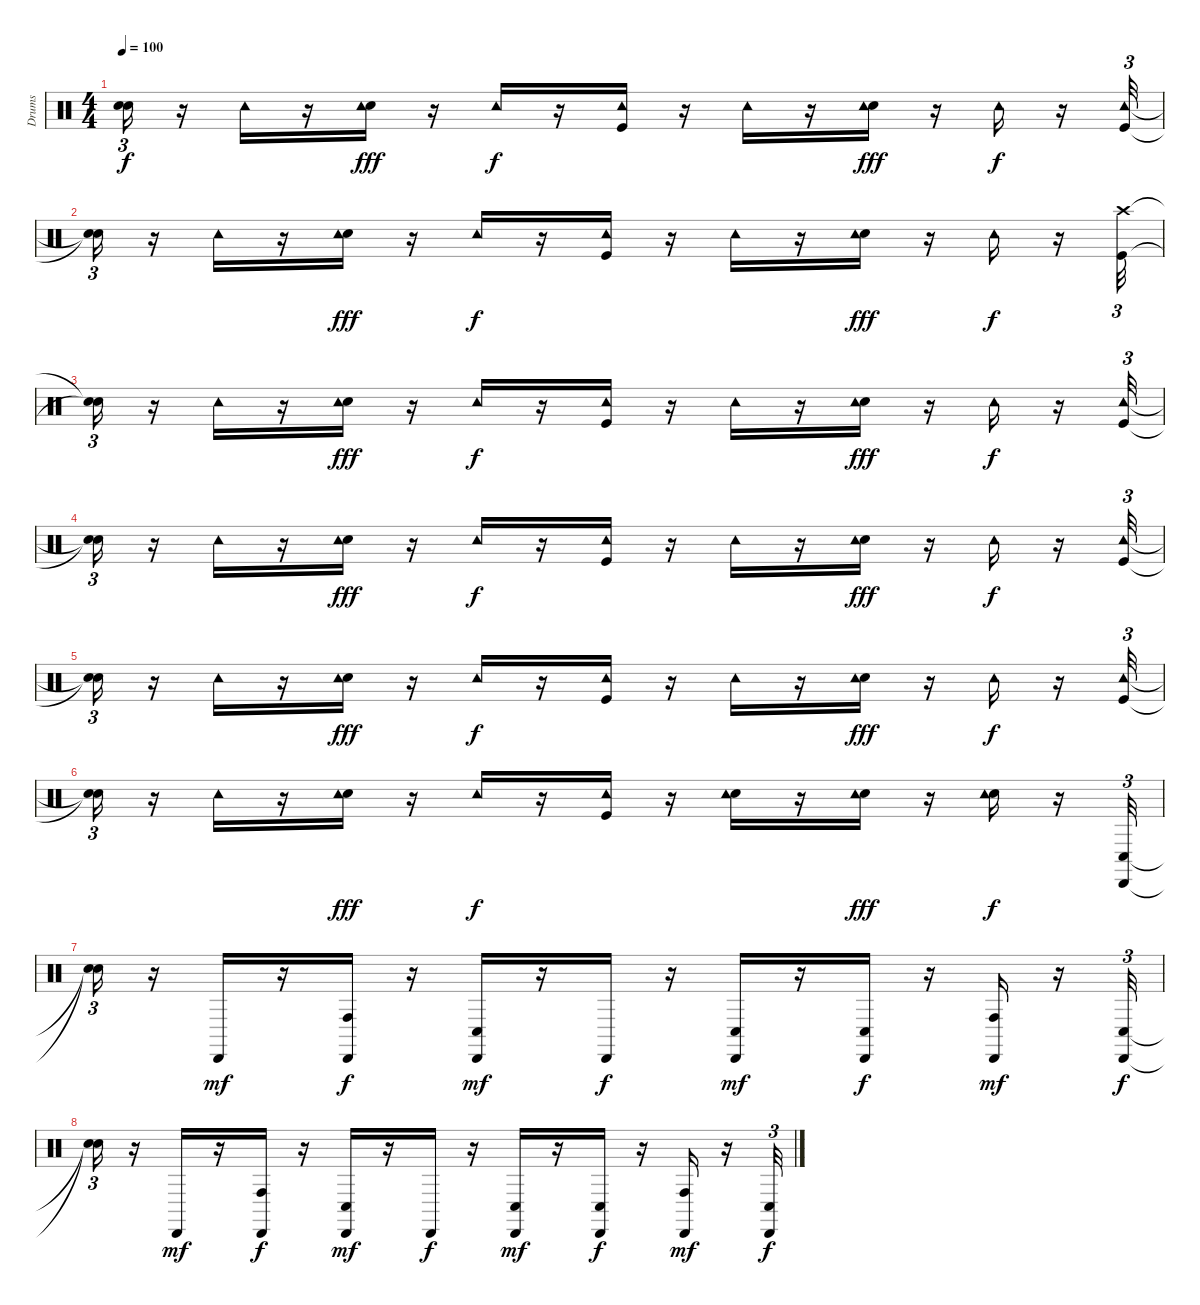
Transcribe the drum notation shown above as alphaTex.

\track ("Drums" "Drums") {instrument percussion}
\staff {score}
\articulation defaults
\ts (4 4)
\tempo 100
\clef neutral
\ks c
("Snare (hit)"{t} "Snare (hit)"{t}).16{tu (3 2) dy f} r.16 "Tambourine (hit)".16 r.16 ("Snare (hit) 2" "Tambourine (hit)").16{dy fff} r.16 "Tambourine (hit)".16{dy f} r.16 ("Kick (hit)" "Tambourine (hit)").16 r.16 "Tambourine (hit)".16 r.16 ("Snare (hit) 2" "Tambourine (hit)").16{dy fff} r.16 "Tambourine (hit)".16{dy f} r.16 ("Kick (hit)" "Tambourine (hit)").32{tu (3 2)} |
("Snare (hit)"{t} "Snare (hit)"{t}).16{tu (3 2)} r.16 "Tambourine (hit)".16 r.16 ("Snare (hit) 2" "Tambourine (hit)").16{dy fff} r.16 "Tambourine (hit)".16{dy f} r.16 ("Kick (hit)" "Tambourine (hit)").16 r.16 "Tambourine (hit)".16 r.16 ("Snare (hit) 2" "Tambourine (hit)").16{dy fff} r.16 "Tambourine (hit)".16{dy f} r.16 ("Kick (hit)" "Crash high (hit)").32{tu (3 2)} |
("Snare (hit)"{t} "Snare (hit)"{t}).16{tu (3 2)} r.16 "Tambourine (hit)".16 r.16 ("Snare (hit) 2" "Tambourine (hit)").16{dy fff} r.16 "Tambourine (hit)".16{dy f} r.16 ("Kick (hit)" "Tambourine (hit)").16 r.16 "Tambourine (hit)".16 r.16 ("Snare (hit) 2" "Tambourine (hit)").16{dy fff} r.16 "Tambourine (hit)".16{dy f} r.16 ("Kick (hit)" "Tambourine (hit)").32{tu (3 2)} |
("Snare (hit)"{t} "Snare (hit)"{t}).16{tu (3 2)} r.16 "Tambourine (hit)".16 r.16 ("Snare (hit) 2" "Tambourine (hit)").16{dy fff} r.16 "Tambourine (hit)".16{dy f} r.16 ("Kick (hit)" "Tambourine (hit)").16 r.16 "Tambourine (hit)".16 r.16 ("Snare (hit) 2" "Tambourine (hit)").16{dy fff} r.16 "Tambourine (hit)".16{dy f} r.16 ("Kick (hit)" "Tambourine (hit)").32{tu (3 2)} |
("Snare (hit)"{t} "Snare (hit)"{t}).16{tu (3 2)} r.16 "Tambourine (hit)".16 r.16 ("Snare (hit) 2" "Tambourine (hit)").16{dy fff} r.16 "Tambourine (hit)".16{dy f} r.16 ("Kick (hit)" "Tambourine (hit)").16 r.16 "Tambourine (hit)".16 r.16 ("Snare (hit) 2" "Tambourine (hit)").16{dy fff} r.16 "Tambourine (hit)".16{dy f} r.16 ("Kick (hit)" "Tambourine (hit)").32{tu (3 2)} |
("Snare (hit)"{t} "Snare (hit)"{t}).16{tu (3 2)} r.16 "Tambourine (hit)".16 r.16 ("Snare (hit) 2" "Tambourine (hit)").16{dy fff} r.16 "Tambourine (hit)".16{dy f} r.16 ("Kick (hit)" "Tambourine (hit)").16 r.16 ("Snare (hit) 2" "Tambourine (hit)").16 r.16 ("Snare (hit) 2" "Tambourine (hit)").16{dy fff} r.16 ("Snare (hit) 2" "Tambourine (hit)").16{dy f} r.16 ("Conga low (hit)" "Cabasa (hit)").32{tu (3 2)} |
("Snare (hit)"{t} "Snare (hit)"{t}).16{tu (3 2)} r.16 "Cabasa (hit)".16{dy mf} r.16 ("Conga high (hit)" "Cabasa (hit)").16{dy f} r.16 ("Conga low (hit)" "Cabasa (hit)").16{dy mf} r.16 "Cabasa (hit)".16{dy f} r.16 ("Conga low (hit)" "Cabasa (hit)").16{dy mf} r.16 ("Conga low (hit)" "Cabasa (hit)").16{dy f} r.16 ("Conga high (hit)" "Cabasa (hit)").16{dy mf} r.16 ("Conga low (hit)" "Cabasa (hit)").32{tu (3 2) dy f} |
("Snare (hit)"{t} "Snare (hit)"{t}).16{tu (3 2)} r.16 "Cabasa (hit)".16{dy mf} r.16 ("Conga high (hit)" "Cabasa (hit)").16{dy f} r.16 ("Conga low (hit)" "Cabasa (hit)").16{dy mf} r.16 "Cabasa (hit)".16{dy f} r.16 ("Conga low (hit)" "Cabasa (hit)").16{dy mf} r.16 ("Conga low (hit)" "Cabasa (hit)").16{dy f} r.16 ("Conga high (hit)" "Cabasa (hit)").16{dy mf} r.16 ("Conga low (hit)" "Cabasa (hit)").32{tu (3 2) dy f}
